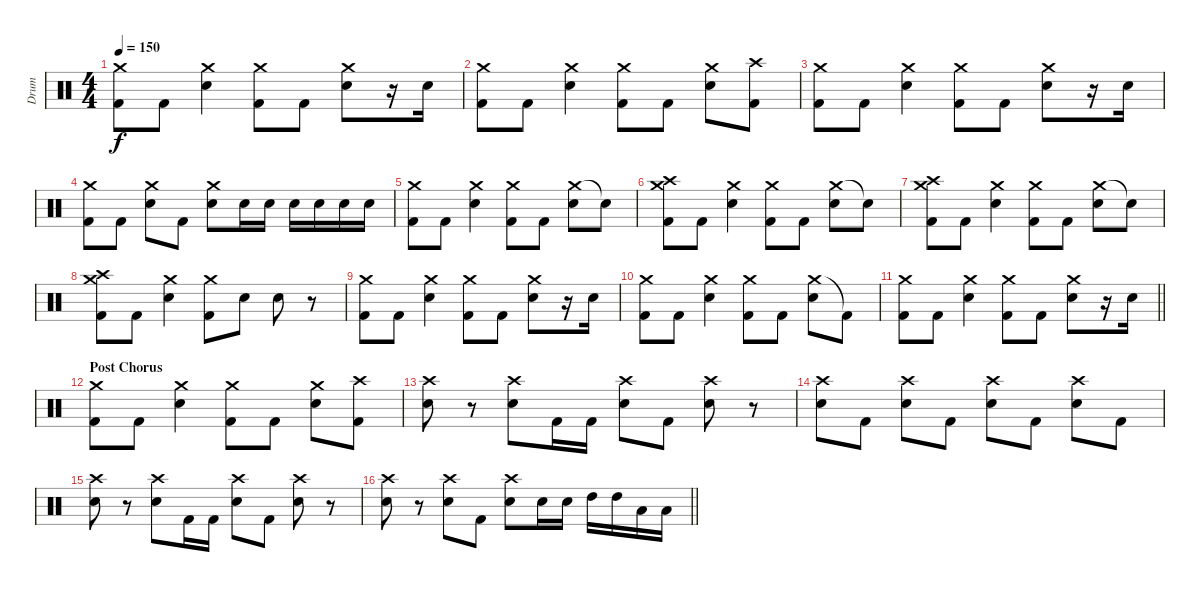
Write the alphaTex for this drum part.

\track ("Drum" "Drum") {instrument percussion}
\staff {score}
\articulation defaults
\ts (4 4)
\tempo 150
\clef neutral
\ks c
("Crash medium (hit)" "Kick (hit) 2").8{dy f} "Kick (hit) 2".8 ("Crash medium (hit)" "Electric Snare (hit)").4 ("Crash medium (hit)" "Kick (hit) 2").8 "Kick (hit) 2".8 ("Crash medium (hit)" "Electric Snare (hit)").8 r.16 "Electric Snare (hit)".16 |
("Crash medium (hit)" "Kick (hit) 2").8 "Kick (hit) 2".8 ("Crash medium (hit)" "Electric Snare (hit)").4 ("Crash medium (hit)" "Kick (hit) 2").8 "Kick (hit) 2".8 ("Crash medium (hit)" "Electric Snare (hit)").8 ("Crash high (hit)" "Kick (hit) 2").8 |
("Crash medium (hit)" "Kick (hit) 2").8 "Kick (hit) 2".8 ("Crash medium (hit)" "Electric Snare (hit)").4 ("Crash medium (hit)" "Kick (hit) 2").8 "Kick (hit) 2".8 ("Crash medium (hit)" "Electric Snare (hit)").8 r.16 "Electric Snare (hit)".16 |
("Crash medium (hit)" "Kick (hit) 2").8 "Kick (hit) 2".8 ("Crash medium (hit)" "Electric Snare (hit)").8 "Kick (hit) 2".8 ("Crash medium (hit)" "Electric Snare (hit)").8 "Electric Snare (hit)".16 "Electric Snare (hit)".16 "Electric Snare (hit)".16 "Electric Snare (hit)".16 "Electric Snare (hit)".16 "Electric Snare (hit)".16 |
("Crash medium (hit)" "Kick (hit) 2").8 "Kick (hit) 2".8 ("Crash medium (hit)" "Electric Snare (hit)").4 ("Crash medium (hit)" "Kick (hit) 2").8 "Kick (hit) 2".8 ("Crash medium (hit)" "Electric Snare (hit)").8 "Snare (hit)"{t}.8 |
("Crash high (hit)" "Crash medium (hit)" "Kick (hit) 2").8 "Kick (hit) 2".8 ("Crash medium (hit)" "Electric Snare (hit)").4 ("Crash medium (hit)" "Kick (hit) 2").8 "Kick (hit) 2".8 ("Crash medium (hit)" "Electric Snare (hit)").8 "Snare (hit)"{t}.8 |
("Crash high (hit)" "Crash medium (hit)" "Kick (hit) 2").8 "Kick (hit) 2".8 ("Crash medium (hit)" "Electric Snare (hit)").4 ("Crash medium (hit)" "Kick (hit) 2").8 "Kick (hit) 2".8 ("Crash medium (hit)" "Electric Snare (hit)").8 "Snare (hit)"{t}.8 |
("Crash high (hit)" "Crash medium (hit)" "Kick (hit) 2").8 "Kick (hit) 2".8 ("Crash medium (hit)" "Electric Snare (hit)").4 ("Crash medium (hit)" "Kick (hit) 2").8 "Electric Snare (hit)".8 "Electric Snare (hit)".8 r.8 |
("Crash medium (hit)" "Kick (hit) 2").8 "Kick (hit) 2".8 ("Crash medium (hit)" "Electric Snare (hit)").4 ("Crash medium (hit)" "Kick (hit) 2").8 "Kick (hit) 2".8 ("Crash medium (hit)" "Electric Snare (hit)").8 r.16 "Electric Snare (hit)".16 |
("Crash medium (hit)" "Kick (hit) 2").8 "Kick (hit) 2".8 ("Crash medium (hit)" "Electric Snare (hit)").4 ("Crash medium (hit)" "Kick (hit) 2").8 "Kick (hit) 2".8 ("Crash medium (hit)" "Electric Snare (hit)").8 "Kick (hit) 2"{t}.8 |
\barLineRight lightlight
("Crash medium (hit)" "Kick (hit) 2").8 "Kick (hit) 2".8 ("Crash medium (hit)" "Electric Snare (hit)").4 ("Crash medium (hit)" "Kick (hit) 2").8 "Kick (hit) 2".8 ("Crash medium (hit)" "Electric Snare (hit)").8 r.16 "Electric Snare (hit)".16 |
\section ("" "Post Chorus")
("Crash medium (hit)" "Kick (hit) 2").8 "Kick (hit) 2".8 ("Crash medium (hit)" "Electric Snare (hit)").4 ("Crash medium (hit)" "Kick (hit) 2").8 "Kick (hit) 2".8 ("Crash medium (hit)" "Electric Snare (hit)").8 ("Crash high (hit)" "Kick (hit) 2").8 |
("Crash high (hit)" "Electric Snare (hit)").8 r.8 ("Crash high (hit)" "Electric Snare (hit)").8 "Kick (hit) 2".16 "Kick (hit) 2".16 ("Crash high (hit)" "Electric Snare (hit)").8 "Kick (hit) 2".8 ("Crash high (hit)" "Electric Snare (hit)").8 r.8 |
("Crash high (hit)" "Electric Snare (hit)").8 "Kick (hit) 2".8 ("Crash high (hit)" "Electric Snare (hit)").8 "Kick (hit) 2".8 ("Crash high (hit)" "Electric Snare (hit)").8 "Kick (hit) 2".8 ("Crash high (hit)" "Electric Snare (hit)").8 "Kick (hit) 2".8 |
("Crash high (hit)" "Electric Snare (hit)").8 r.8 ("Crash high (hit)" "Electric Snare (hit)").8 "Kick (hit) 2".16 "Kick (hit) 2".16 ("Crash high (hit)" "Electric Snare (hit)").8 "Kick (hit) 2".8 ("Crash high (hit)" "Electric Snare (hit)").8 r.8 |
\barLineRight lightlight
("Crash high (hit)" "Electric Snare (hit)").8 r.8 ("Crash high (hit)" "Electric Snare (hit)").8 "Kick (hit) 2".8 ("Crash high (hit)" "Electric Snare (hit)").8 "Electric Snare (hit)".16 "Electric Snare (hit)".16 "High Tom (hit)".16 "High Tom (hit)".16 "Low Tom (hit)".16 "Low Tom (hit)".16
